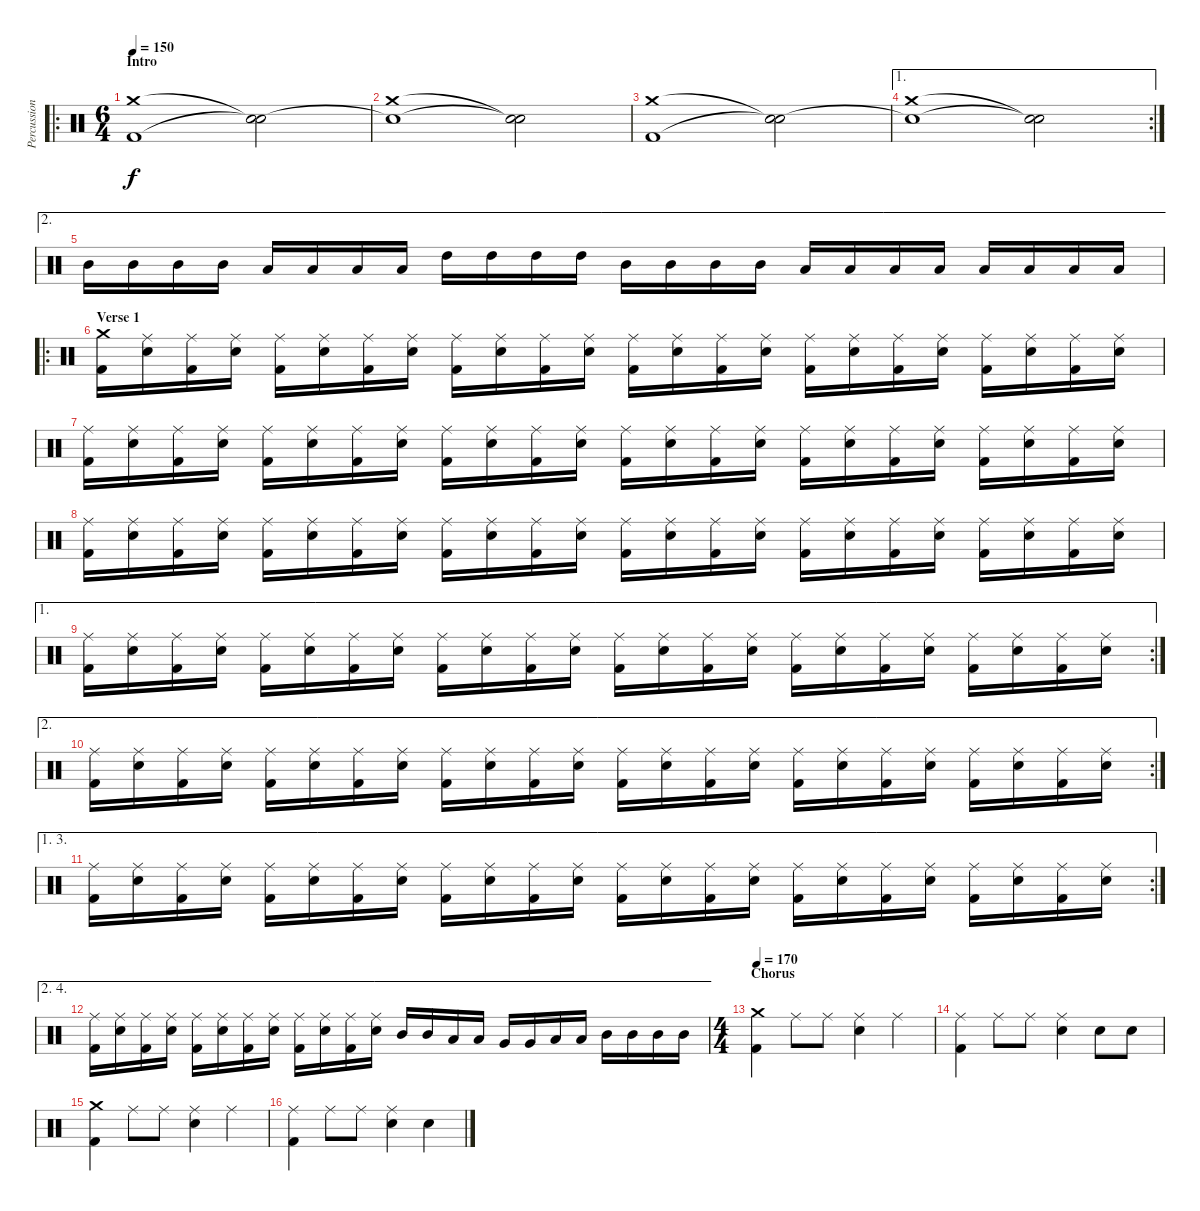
\track ("Percussion" "Percussion") {instrument percussion}
\staff {score}
\articulation defaults
\ro
\ts (6 4)
\section ("" "Intro")
\tempo 150
\clef neutral
\ks c
("Crash medium (hit)" "Kick (hit) 2").1{dy f} ("Snare (hit)"{t} "Snare (hit)"{t}).2 |
("Crash medium (hit)" "Snare (hit)"{t}).1 ("Snare (hit)"{t} "Snare (hit)"{t}).2 |
("Crash medium (hit)" "Kick (hit) 2").1 ("Snare (hit)"{t} "Snare (hit)"{t}).2 |
\ae 1
\rc 2
("Crash medium (hit)" "Snare (hit)"{t}).1 ("Snare (hit)"{t} "Snare (hit)"{t}).2 |
\ae 2 "Mid Tom (hit)".16 "Mid Tom (hit)".16 "Mid Tom (hit)".16 "Mid Tom (hit)".16 "Low Tom (hit)".16 "Low Tom (hit)".16 "Low Tom (hit)".16 "Low Tom (hit)".16 "High Tom (hit)".16 "High Tom (hit)".16 "High Tom (hit)".16 "High Tom (hit)".16 "Mid Tom (hit)".16 "Mid Tom (hit)".16 "Mid Tom (hit)".16 "Mid Tom (hit)".16 "Low Tom (hit)".16 "Low Tom (hit)".16 "Low Tom (hit)".16 "Low Tom (hit)".16 "Low Tom (hit)".16 "Low Tom (hit)".16 "Low Tom (hit)".16 "Low Tom (hit)".16
|
\ro
\section ("" "Verse 1")
("Crash medium (hit)" "Kick (hit) 2").16 ("Ride (middle)" "Electric Snare (hit)").16 ("Ride (middle)" "Kick (hit) 2").16 ("Ride (middle)" "Electric Snare (hit)").16 ("Ride (middle)" "Kick (hit) 2").16 ("Ride (middle)" "Electric Snare (hit)").16 ("Ride (middle)" "Kick (hit) 2").16 ("Ride (middle)" "Electric Snare (hit)").16 ("Ride (middle)" "Kick (hit) 2").16 ("Ride (middle)" "Electric Snare (hit)").16 ("Ride (middle)" "Kick (hit) 2").16 ("Ride (middle)" "Electric Snare (hit)").16 ("Ride (middle)" "Kick (hit) 2").16 ("Ride (middle)" "Electric Snare (hit)").16 ("Ride (middle)" "Kick (hit) 2").16 ("Ride (middle)" "Electric Snare (hit)").16 ("Ride (middle)" "Kick (hit) 2").16 ("Ride (middle)" "Electric Snare (hit)").16 ("Ride (middle)" "Kick (hit) 2").16 ("Ride (middle)" "Electric Snare (hit)").16 ("Ride (middle)" "Kick (hit) 2").16 ("Ride (middle)" "Electric Snare (hit)").16 ("Ride (middle)" "Kick (hit) 2").16 ("Ride (middle)" "Electric Snare (hit)").16 |
("Ride (middle)" "Kick (hit) 2").16 ("Ride (middle)" "Electric Snare (hit)").16 ("Ride (middle)" "Kick (hit) 2").16 ("Ride (middle)" "Electric Snare (hit)").16 ("Ride (middle)" "Kick (hit) 2").16 ("Ride (middle)" "Electric Snare (hit)").16 ("Ride (middle)" "Kick (hit) 2").16 ("Ride (middle)" "Electric Snare (hit)").16 ("Ride (middle)" "Kick (hit) 2").16 ("Ride (middle)" "Electric Snare (hit)").16 ("Ride (middle)" "Kick (hit) 2").16 ("Ride (middle)" "Electric Snare (hit)").16 ("Ride (middle)" "Kick (hit) 2").16 ("Ride (middle)" "Electric Snare (hit)").16 ("Ride (middle)" "Kick (hit) 2").16 ("Ride (middle)" "Electric Snare (hit)").16 ("Ride (middle)" "Kick (hit) 2").16 ("Ride (middle)" "Electric Snare (hit)").16 ("Ride (middle)" "Kick (hit) 2").16 ("Ride (middle)" "Electric Snare (hit)").16 ("Ride (middle)" "Kick (hit) 2").16 ("Ride (middle)" "Electric Snare (hit)").16 ("Ride (middle)" "Kick (hit) 2").16 ("Ride (middle)" "Electric Snare (hit)").16 |
("Ride (middle)" "Kick (hit) 2").16 ("Ride (middle)" "Electric Snare (hit)").16 ("Ride (middle)" "Kick (hit) 2").16 ("Ride (middle)" "Electric Snare (hit)").16 ("Ride (middle)" "Kick (hit) 2").16 ("Ride (middle)" "Electric Snare (hit)").16 ("Ride (middle)" "Kick (hit) 2").16 ("Ride (middle)" "Electric Snare (hit)").16 ("Ride (middle)" "Kick (hit) 2").16 ("Ride (middle)" "Electric Snare (hit)").16 ("Ride (middle)" "Kick (hit) 2").16 ("Ride (middle)" "Electric Snare (hit)").16 ("Ride (middle)" "Kick (hit) 2").16 ("Ride (middle)" "Electric Snare (hit)").16 ("Ride (middle)" "Kick (hit) 2").16 ("Ride (middle)" "Electric Snare (hit)").16 ("Ride (middle)" "Kick (hit) 2").16 ("Ride (middle)" "Electric Snare (hit)").16 ("Ride (middle)" "Kick (hit) 2").16 ("Ride (middle)" "Electric Snare (hit)").16 ("Ride (middle)" "Kick (hit) 2").16 ("Ride (middle)" "Electric Snare (hit)").16 ("Ride (middle)" "Kick (hit) 2").16 ("Ride (middle)" "Electric Snare (hit)").16 |
\ae 1
\rc 2
("Ride (middle)" "Kick (hit) 2").16 ("Ride (middle)" "Electric Snare (hit)").16 ("Ride (middle)" "Kick (hit) 2").16 ("Ride (middle)" "Electric Snare (hit)").16 ("Ride (middle)" "Kick (hit) 2").16 ("Ride (middle)" "Electric Snare (hit)").16 ("Ride (middle)" "Kick (hit) 2").16 ("Ride (middle)" "Electric Snare (hit)").16 ("Ride (middle)" "Kick (hit) 2").16 ("Ride (middle)" "Electric Snare (hit)").16 ("Ride (middle)" "Kick (hit) 2").16 ("Ride (middle)" "Electric Snare (hit)").16 ("Ride (middle)" "Kick (hit) 2").16 ("Ride (middle)" "Electric Snare (hit)").16 ("Ride (middle)" "Kick (hit) 2").16 ("Ride (middle)" "Electric Snare (hit)").16 ("Ride (middle)" "Kick (hit) 2").16 ("Ride (middle)" "Electric Snare (hit)").16 ("Ride (middle)" "Kick (hit) 2").16 ("Ride (middle)" "Electric Snare (hit)").16 ("Ride (middle)" "Kick (hit) 2").16 ("Ride (middle)" "Electric Snare (hit)").16 ("Ride (middle)" "Kick (hit) 2").16 ("Ride (middle)" "Electric Snare (hit)").16 |
\ae 2
\rc 2
("Ride (middle)" "Kick (hit) 2").16 ("Ride (middle)" "Electric Snare (hit)").16 ("Ride (middle)" "Kick (hit) 2").16 ("Ride (middle)" "Electric Snare (hit)").16 ("Ride (middle)" "Kick (hit) 2").16 ("Ride (middle)" "Electric Snare (hit)").16 ("Ride (middle)" "Kick (hit) 2").16 ("Ride (middle)" "Electric Snare (hit)").16 ("Ride (middle)" "Kick (hit) 2").16 ("Ride (middle)" "Electric Snare (hit)").16 ("Ride (middle)" "Kick (hit) 2").16 ("Ride (middle)" "Electric Snare (hit)").16 ("Ride (middle)" "Kick (hit) 2").16 ("Ride (middle)" "Electric Snare (hit)").16 ("Ride (middle)" "Kick (hit) 2").16 ("Ride (middle)" "Electric Snare (hit)").16 ("Ride (middle)" "Kick (hit) 2").16 ("Ride (middle)" "Electric Snare (hit)").16 ("Ride (middle)" "Kick (hit) 2").16 ("Ride (middle)" "Electric Snare (hit)").16 ("Ride (middle)" "Kick (hit) 2").16 ("Ride (middle)" "Electric Snare (hit)").16 ("Ride (middle)" "Kick (hit) 2").16 ("Ride (middle)" "Electric Snare (hit)").16 |
\ae (1 3)
\rc 2
("Ride (middle)" "Kick (hit) 2").16 ("Ride (middle)" "Electric Snare (hit)").16 ("Ride (middle)" "Kick (hit) 2").16 ("Ride (middle)" "Electric Snare (hit)").16 ("Ride (middle)" "Kick (hit) 2").16 ("Ride (middle)" "Electric Snare (hit)").16 ("Ride (middle)" "Kick (hit) 2").16 ("Ride (middle)" "Electric Snare (hit)").16 ("Ride (middle)" "Kick (hit) 2").16 ("Ride (middle)" "Electric Snare (hit)").16 ("Ride (middle)" "Kick (hit) 2").16 ("Ride (middle)" "Electric Snare (hit)").16 ("Ride (middle)" "Kick (hit) 2").16 ("Ride (middle)" "Electric Snare (hit)").16 ("Ride (middle)" "Kick (hit) 2").16 ("Ride (middle)" "Electric Snare (hit)").16 ("Ride (middle)" "Kick (hit) 2").16 ("Ride (middle)" "Electric Snare (hit)").16 ("Ride (middle)" "Kick (hit) 2").16 ("Ride (middle)" "Electric Snare (hit)").16 ("Ride (middle)" "Kick (hit) 2").16 ("Ride (middle)" "Electric Snare (hit)").16 ("Ride (middle)" "Kick (hit) 2").16 ("Ride (middle)" "Electric Snare (hit)").16 |
\ae (2 4)
("Ride (middle)" "Kick (hit) 2").16 ("Ride (middle)" "Electric Snare (hit)").16 ("Ride (middle)" "Kick (hit) 2").16 ("Ride (middle)" "Electric Snare (hit)").16 ("Ride (middle)" "Kick (hit) 2").16 ("Ride (middle)" "Electric Snare (hit)").16 ("Ride (middle)" "Kick (hit) 2").16 ("Ride (middle)" "Electric Snare (hit)").16 ("Ride (middle)" "Kick (hit) 2").16 ("Ride (middle)" "Electric Snare (hit)").16 ("Ride (middle)" "Kick (hit) 2").16 ("Ride (middle)" "Electric Snare (hit)").16 "Mid Tom (hit)".16 "Mid Tom (hit)".16 "Low Tom (hit)".16 "Low Tom (hit)".16 "Very Low Tom (hit)".16 "Very Low Tom (hit)".16 "Low Tom (hit)".16 "Low Tom (hit)".16 "Mid Tom (hit)".16 "Mid Tom (hit)".16 "Mid Tom (hit)".16 "Mid Tom (hit)".16 |
\ts (4 4)
\section ("" "Chorus")
\tempo 170
("Crash medium (hit)" "Kick (hit) 2").4 "Ride (middle)".8 "Ride (middle)".8 ("Ride (middle)" "Electric Snare (hit)").4 "Ride (middle)".4 |
("Ride (middle)" "Kick (hit) 2").4 "Ride (middle)".8 "Ride (middle)".8 ("Ride (middle)" "Electric Snare (hit)").4 "Electric Snare (hit)".8 "Electric Snare (hit)".8 |
("Crash medium (hit)" "Kick (hit) 2").4 "Ride (middle)".8 "Ride (middle)".8 ("Ride (middle)" "Electric Snare (hit)").4 "Ride (middle)".4 |
("Ride (middle)" "Kick (hit) 2").4 "Ride (middle)".8 "Ride (middle)".8 ("Ride (middle)" "Electric Snare (hit)").4 "Electric Snare (hit)".4
